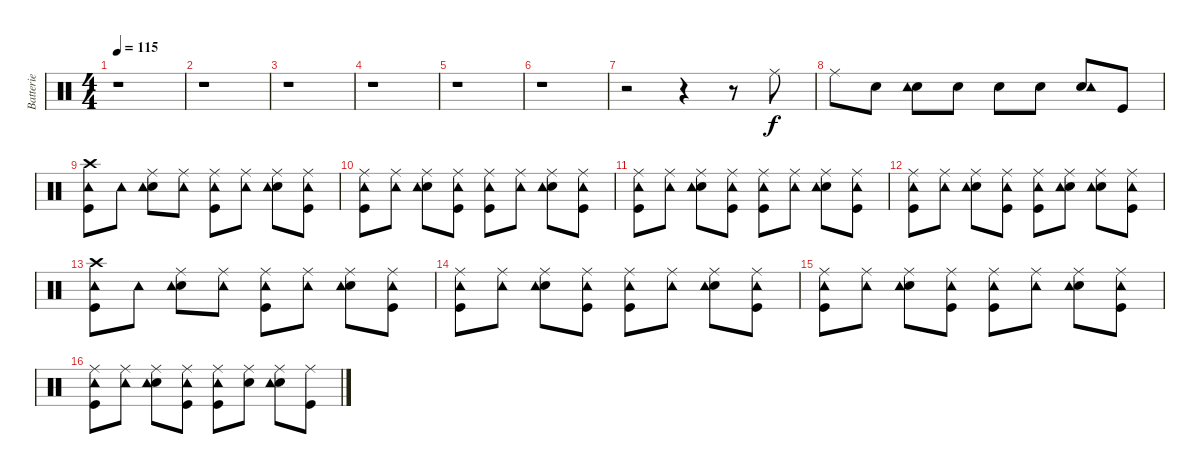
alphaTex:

\track ("Batterie" "Batterie") {instrument percussion}
\staff {score}
\articulation defaults
\ts (4 4)
\tempo 115
\clef neutral
\ks c
r.1{dy f} |
r.1 |
r.1 |
r.1 |
r.1 |
r.1 |
r.2 r.4 r.8 "Ride (middle)".8 |
"Ride (middle)".8 "Electric Snare (hit)".8 ("Electric Snare (hit)" "Tambourine (hit)").8 "Electric Snare (hit)".8 "Electric Snare (hit)".8 "Electric Snare (hit)".8 ("Electric Snare (hit)" "Tambourine (hit)").8 "Kick (hit)".8 |
("Kick (hit)" "Crash high (hit)" "Tambourine (hit)").8 "Tambourine (hit)".8 ("Electric Snare (hit)" "Ride (middle)" "Tambourine (hit)").8 ("Ride (middle)" "Tambourine (hit)").8 ("Kick (hit)" "Ride (middle)" "Tambourine (hit)").8 ("Ride (middle)" "Tambourine (hit)").8 ("Ride (middle)" "Electric Snare (hit)" "Tambourine (hit)").8 ("Kick (hit)" "Ride (middle)" "Tambourine (hit)").8 |
("Ride (middle)" "Kick (hit)" "Tambourine (hit)").8 ("Ride (middle)" "Tambourine (hit)").8 ("Ride (middle)" "Electric Snare (hit)" "Tambourine (hit)").8 ("Ride (middle)" "Kick (hit)" "Tambourine (hit)").8 ("Kick (hit)" "Ride (middle)" "Tambourine (hit)").8 ("Ride (middle)" "Tambourine (hit)").8 ("Electric Snare (hit)" "Ride (middle)" "Tambourine (hit)").8 ("Kick (hit)" "Ride (middle)" "Tambourine (hit)").8 |
("Kick (hit)" "Ride (middle)" "Tambourine (hit)").8 ("Ride (middle)" "Tambourine (hit)").8 ("Electric Snare (hit)" "Ride (middle)" "Tambourine (hit)").8 ("Kick (hit)" "Ride (middle)" "Tambourine (hit)").8 ("Kick (hit)" "Ride (middle)" "Tambourine (hit)").8 ("Ride (middle)" "Tambourine (hit)").8 ("Electric Snare (hit)" "Ride (middle)" "Tambourine (hit)").8 ("Ride (middle)" "Kick (hit)" "Tambourine (hit)").8 |
("Kick (hit)" "Ride (middle)" "Tambourine (hit)").8 ("Ride (middle)" "Tambourine (hit)").8 ("Electric Snare (hit)" "Ride (middle)" "Tambourine (hit)").8 ("Kick (hit)" "Ride (middle)" "Tambourine (hit)").8 ("Kick (hit)" "Ride (middle)" "Tambourine (hit)").8 ("Electric Snare (hit)" "Ride (middle)" "Tambourine (hit)").8 ("Ride (middle)" "Electric Snare (hit)" "Tambourine (hit)").8 ("Ride (middle)" "Kick (hit)" "Tambourine (hit)").8 |
("Crash high (hit)" "Kick (hit)" "Tambourine (hit)").8 "Tambourine (hit)".8 ("Electric Snare (hit)" "Ride (middle)" "Tambourine (hit)").8 ("Ride (middle)" "Tambourine (hit)").8 ("Kick (hit)" "Ride (middle)" "Tambourine (hit)").8 ("Ride (middle)" "Tambourine (hit)").8 ("Ride (middle)" "Electric Snare (hit)" "Tambourine (hit)").8 ("Kick (hit)" "Ride (middle)" "Tambourine (hit)").8 |
("Kick (hit)" "Ride (middle)" "Tambourine (hit)").8 ("Ride (middle)" "Tambourine (hit)").8 ("Electric Snare (hit)" "Ride (middle)" "Tambourine (hit)").8 ("Kick (hit)" "Ride (middle)" "Tambourine (hit)").8 ("Kick (hit)" "Ride (middle)" "Tambourine (hit)").8 ("Ride (middle)" "Tambourine (hit)").8 ("Ride (middle)" "Electric Snare (hit)" "Tambourine (hit)").8 ("Ride (middle)" "Kick (hit)" "Tambourine (hit)").8 |
("Ride (middle)" "Kick (hit)" "Tambourine (hit)").8 ("Ride (middle)" "Tambourine (hit)").8 ("Ride (middle)" "Electric Snare (hit)" "Tambourine (hit)").8 ("Kick (hit)" "Ride (middle)" "Tambourine (hit)").8 ("Kick (hit)" "Ride (middle)" "Tambourine (hit)").8 ("Ride (middle)" "Tambourine (hit)").8 ("Electric Snare (hit)" "Ride (middle)" "Tambourine (hit)").8 ("Kick (hit)" "Ride (middle)" "Tambourine (hit)").8 |
("Kick (hit)" "Ride (middle)" "Tambourine (hit)").8 ("Ride (middle)" "Tambourine (hit)").8 ("Ride (middle)" "Electric Snare (hit)" "Tambourine (hit)").8 ("Ride (middle)" "Kick (hit)" "Tambourine (hit)").8 ("Kick (hit)" "Ride (middle)" "Tambourine (hit)").8 ("Electric Snare (hit)" "Ride (middle)").8 ("Electric Snare (hit)" "Ride (middle)" "Tambourine (hit)").8 ("Ride (middle)" "Kick (hit)").8
